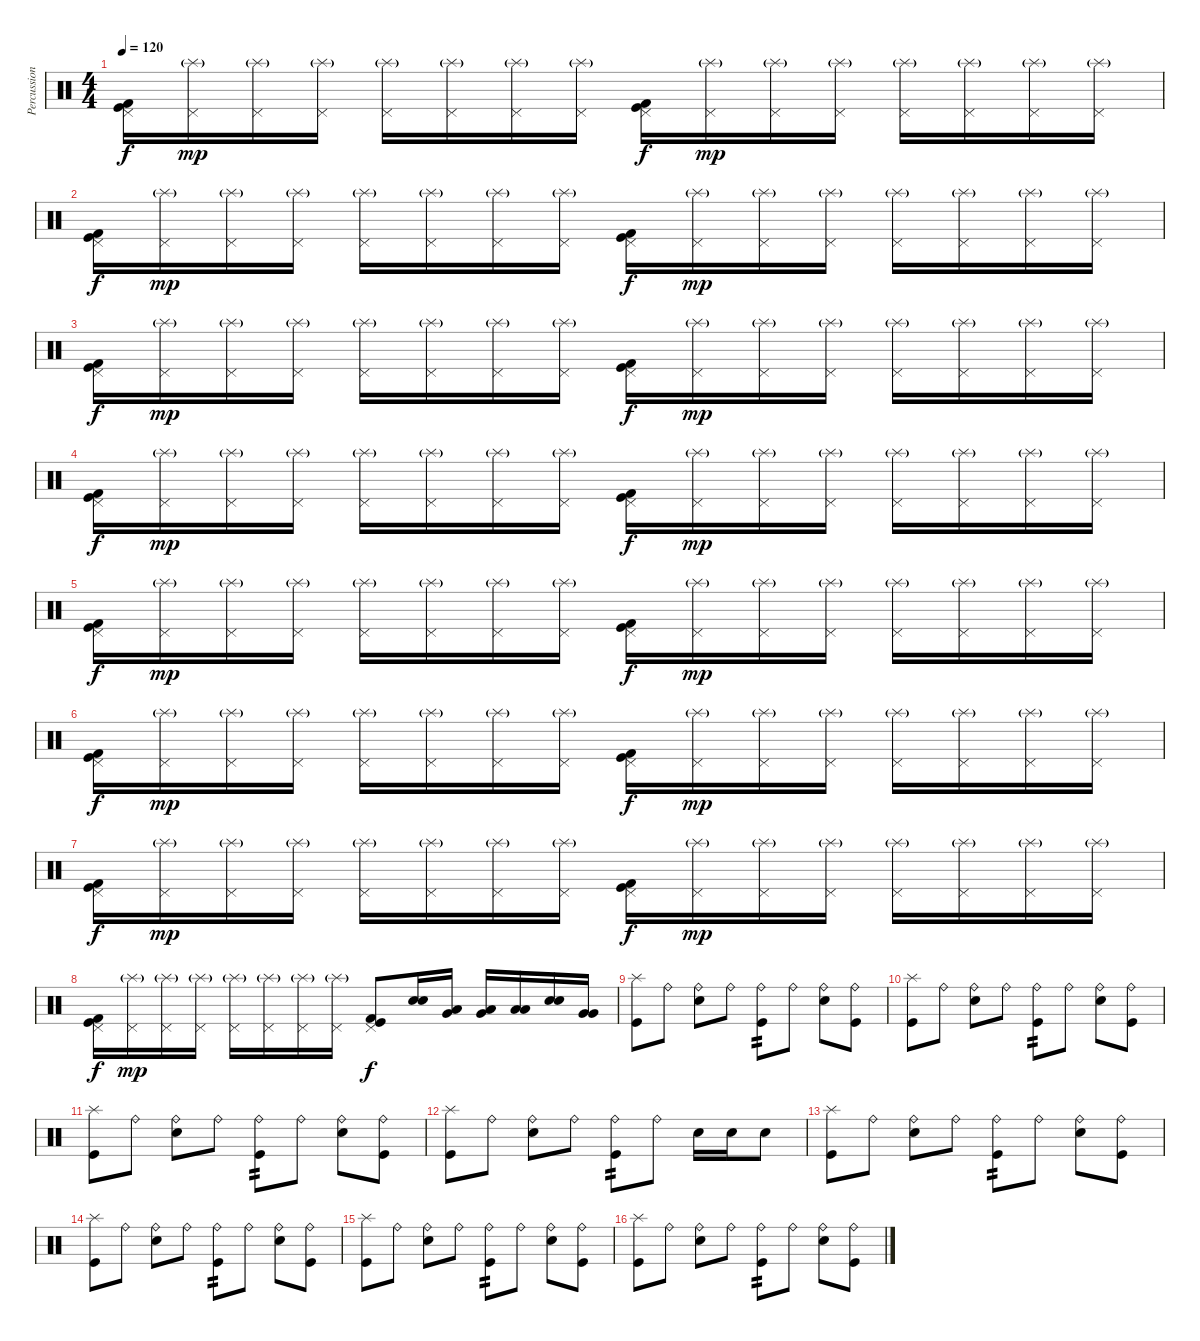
\track ("Percussion" "Percussion") {instrument percussion}
\staff {score}
\articulation defaults
\ts (4 4)
\tempo 120
\clef neutral
\ks c
("Kick (hit) 2" "Pedal Hi-Hat (hit)" "Kick (hit)").16{dy f} ("Pedal Hi-Hat (hit)" "Splash (hit)"{g}).16{dy mp} ("Pedal Hi-Hat (hit)" "Splash (hit)"{g}).16 ("Pedal Hi-Hat (hit)" "Splash (hit)"{g}).16 ("Pedal Hi-Hat (hit)" "Splash (hit)"{g}).16 ("Pedal Hi-Hat (hit)" "Splash (hit)"{g}).16 ("Pedal Hi-Hat (hit)" "Splash (hit)"{g}).16 ("Pedal Hi-Hat (hit)" "Splash (hit)"{g}).16 ("Kick (hit) 2" "Pedal Hi-Hat (hit)" "Kick (hit)").16{dy f} ("Pedal Hi-Hat (hit)" "Splash (hit)"{g}).16{dy mp} ("Pedal Hi-Hat (hit)" "Splash (hit)"{g}).16 ("Pedal Hi-Hat (hit)" "Splash (hit)"{g}).16 ("Pedal Hi-Hat (hit)" "Splash (hit)"{g}).16 ("Pedal Hi-Hat (hit)" "Splash (hit)"{g}).16 ("Pedal Hi-Hat (hit)" "Splash (hit)"{g}).16 ("Pedal Hi-Hat (hit)" "Splash (hit)"{g}).16 |
("Kick (hit) 2" "Pedal Hi-Hat (hit)" "Kick (hit)").16{dy f} ("Pedal Hi-Hat (hit)" "Splash (hit)"{g}).16{dy mp} ("Pedal Hi-Hat (hit)" "Splash (hit)"{g}).16 ("Pedal Hi-Hat (hit)" "Splash (hit)"{g}).16 ("Pedal Hi-Hat (hit)" "Splash (hit)"{g}).16 ("Pedal Hi-Hat (hit)" "Splash (hit)"{g}).16 ("Pedal Hi-Hat (hit)" "Splash (hit)"{g}).16 ("Pedal Hi-Hat (hit)" "Splash (hit)"{g}).16 ("Kick (hit) 2" "Pedal Hi-Hat (hit)" "Kick (hit)").16{dy f} ("Pedal Hi-Hat (hit)" "Splash (hit)"{g}).16{dy mp} ("Pedal Hi-Hat (hit)" "Splash (hit)"{g}).16 ("Pedal Hi-Hat (hit)" "Splash (hit)"{g}).16 ("Pedal Hi-Hat (hit)" "Splash (hit)"{g}).16 ("Pedal Hi-Hat (hit)" "Splash (hit)"{g}).16 ("Pedal Hi-Hat (hit)" "Splash (hit)"{g}).16 ("Pedal Hi-Hat (hit)" "Splash (hit)"{g}).16 |
("Kick (hit) 2" "Pedal Hi-Hat (hit)" "Kick (hit)").16{dy f} ("Pedal Hi-Hat (hit)" "Splash (hit)"{g}).16{dy mp} ("Pedal Hi-Hat (hit)" "Splash (hit)"{g}).16 ("Pedal Hi-Hat (hit)" "Splash (hit)"{g}).16 ("Pedal Hi-Hat (hit)" "Splash (hit)"{g}).16 ("Pedal Hi-Hat (hit)" "Splash (hit)"{g}).16 ("Pedal Hi-Hat (hit)" "Splash (hit)"{g}).16 ("Pedal Hi-Hat (hit)" "Splash (hit)"{g}).16 ("Kick (hit) 2" "Pedal Hi-Hat (hit)" "Kick (hit)").16{dy f} ("Pedal Hi-Hat (hit)" "Splash (hit)"{g}).16{dy mp} ("Pedal Hi-Hat (hit)" "Splash (hit)"{g}).16 ("Pedal Hi-Hat (hit)" "Splash (hit)"{g}).16 ("Pedal Hi-Hat (hit)" "Splash (hit)"{g}).16 ("Pedal Hi-Hat (hit)" "Splash (hit)"{g}).16 ("Pedal Hi-Hat (hit)" "Splash (hit)"{g}).16 ("Pedal Hi-Hat (hit)" "Splash (hit)"{g}).16 |
("Kick (hit) 2" "Pedal Hi-Hat (hit)" "Kick (hit)").16{dy f} ("Pedal Hi-Hat (hit)" "Splash (hit)"{g}).16{dy mp} ("Pedal Hi-Hat (hit)" "Splash (hit)"{g}).16 ("Pedal Hi-Hat (hit)" "Splash (hit)"{g}).16 ("Pedal Hi-Hat (hit)" "Splash (hit)"{g}).16 ("Pedal Hi-Hat (hit)" "Splash (hit)"{g}).16 ("Pedal Hi-Hat (hit)" "Splash (hit)"{g}).16 ("Pedal Hi-Hat (hit)" "Splash (hit)"{g}).16 ("Kick (hit) 2" "Pedal Hi-Hat (hit)" "Kick (hit)").16{dy f} ("Pedal Hi-Hat (hit)" "Splash (hit)"{g}).16{dy mp} ("Pedal Hi-Hat (hit)" "Splash (hit)"{g}).16 ("Pedal Hi-Hat (hit)" "Splash (hit)"{g}).16 ("Pedal Hi-Hat (hit)" "Splash (hit)"{g}).16 ("Pedal Hi-Hat (hit)" "Splash (hit)"{g}).16 ("Pedal Hi-Hat (hit)" "Splash (hit)"{g}).16 ("Pedal Hi-Hat (hit)" "Splash (hit)"{g}).16 |
("Kick (hit) 2" "Pedal Hi-Hat (hit)" "Kick (hit)").16{dy f} ("Pedal Hi-Hat (hit)" "Splash (hit)"{g}).16{dy mp} ("Pedal Hi-Hat (hit)" "Splash (hit)"{g}).16 ("Pedal Hi-Hat (hit)" "Splash (hit)"{g}).16 ("Pedal Hi-Hat (hit)" "Splash (hit)"{g}).16 ("Pedal Hi-Hat (hit)" "Splash (hit)"{g}).16 ("Pedal Hi-Hat (hit)" "Splash (hit)"{g}).16 ("Pedal Hi-Hat (hit)" "Splash (hit)"{g}).16 ("Kick (hit) 2" "Pedal Hi-Hat (hit)" "Kick (hit)").16{dy f} ("Pedal Hi-Hat (hit)" "Splash (hit)"{g}).16{dy mp} ("Pedal Hi-Hat (hit)" "Splash (hit)"{g}).16 ("Pedal Hi-Hat (hit)" "Splash (hit)"{g}).16 ("Pedal Hi-Hat (hit)" "Splash (hit)"{g}).16 ("Pedal Hi-Hat (hit)" "Splash (hit)"{g}).16 ("Pedal Hi-Hat (hit)" "Splash (hit)"{g}).16 ("Pedal Hi-Hat (hit)" "Splash (hit)"{g}).16 |
("Kick (hit) 2" "Pedal Hi-Hat (hit)" "Kick (hit)").16{dy f} ("Pedal Hi-Hat (hit)" "Splash (hit)"{g}).16{dy mp} ("Pedal Hi-Hat (hit)" "Splash (hit)"{g}).16 ("Pedal Hi-Hat (hit)" "Splash (hit)"{g}).16 ("Pedal Hi-Hat (hit)" "Splash (hit)"{g}).16 ("Pedal Hi-Hat (hit)" "Splash (hit)"{g}).16 ("Pedal Hi-Hat (hit)" "Splash (hit)"{g}).16 ("Pedal Hi-Hat (hit)" "Splash (hit)"{g}).16 ("Kick (hit) 2" "Pedal Hi-Hat (hit)" "Kick (hit)").16{dy f} ("Pedal Hi-Hat (hit)" "Splash (hit)"{g}).16{dy mp} ("Pedal Hi-Hat (hit)" "Splash (hit)"{g}).16 ("Pedal Hi-Hat (hit)" "Splash (hit)"{g}).16 ("Pedal Hi-Hat (hit)" "Splash (hit)"{g}).16 ("Pedal Hi-Hat (hit)" "Splash (hit)"{g}).16 ("Pedal Hi-Hat (hit)" "Splash (hit)"{g}).16 ("Pedal Hi-Hat (hit)" "Splash (hit)"{g}).16 |
("Kick (hit) 2" "Pedal Hi-Hat (hit)" "Kick (hit)").16{dy f} ("Pedal Hi-Hat (hit)" "Splash (hit)"{g}).16{dy mp} ("Pedal Hi-Hat (hit)" "Splash (hit)"{g}).16 ("Pedal Hi-Hat (hit)" "Splash (hit)"{g}).16 ("Pedal Hi-Hat (hit)" "Splash (hit)"{g}).16 ("Pedal Hi-Hat (hit)" "Splash (hit)"{g}).16 ("Pedal Hi-Hat (hit)" "Splash (hit)"{g}).16 ("Pedal Hi-Hat (hit)" "Splash (hit)"{g}).16 ("Kick (hit) 2" "Pedal Hi-Hat (hit)" "Kick (hit)").16{dy f} ("Pedal Hi-Hat (hit)" "Splash (hit)"{g}).16{dy mp} ("Pedal Hi-Hat (hit)" "Splash (hit)"{g}).16 ("Pedal Hi-Hat (hit)" "Splash (hit)"{g}).16 ("Pedal Hi-Hat (hit)" "Splash (hit)"{g}).16 ("Pedal Hi-Hat (hit)" "Splash (hit)"{g}).16 ("Pedal Hi-Hat (hit)" "Splash (hit)"{g}).16 ("Pedal Hi-Hat (hit)" "Splash (hit)"{g}).16 |
("Kick (hit) 2" "Pedal Hi-Hat (hit)" "Kick (hit)").16{dy f} ("Pedal Hi-Hat (hit)" "Splash (hit)"{g}).16{dy mp} ("Pedal Hi-Hat (hit)" "Splash (hit)"{g}).16 ("Pedal Hi-Hat (hit)" "Splash (hit)"{g}).16 ("Pedal Hi-Hat (hit)" "Splash (hit)"{g}).16 ("Pedal Hi-Hat (hit)" "Splash (hit)"{g}).16 ("Pedal Hi-Hat (hit)" "Splash (hit)"{g}).16 ("Pedal Hi-Hat (hit)" "Splash (hit)"{g}).16 ("Kick (hit) 2" "Pedal Hi-Hat (hit)" "Kick (hit)").8{dy f} ("Electric Snare (hit)" "Electric Snare (hit)").16 ("Low Floor Tom (hit)" "Very Low Tom (hit)").16 ("Low Floor Tom (hit)" "Very Low Tom (hit)").16 ("Low Floor Tom (hit)" "Low Floor Tom (hit)").16 ("Electric Snare (hit)" "Electric Snare (hit)").16 ("Very Low Tom (hit)" "Very Low Tom (hit)").16 |
("Kick (hit)" "Splash (hit)").8 "Ride (bell)".8 ("Electric Snare (hit)" "Ride (bell)").8 "Ride (bell)".8 ("Kick (hit)" "Ride (bell)").8{tp 2} "Ride (bell)".8 ("Electric Snare (hit)" "Ride (bell)").8 ("Kick (hit)" "Ride (bell)").8 |
("Kick (hit)" "Splash (hit)").8 "Ride (bell)".8 ("Electric Snare (hit)" "Ride (bell)").8 "Ride (bell)".8 ("Kick (hit)" "Ride (bell)").8{tp 2} "Ride (bell)".8 ("Electric Snare (hit)" "Ride (bell)").8 ("Kick (hit)" "Ride (bell)").8 |
("Kick (hit)" "Splash (hit)").8 "Ride (bell)".8 ("Electric Snare (hit)" "Ride (bell)").8 "Ride (bell)".8 ("Kick (hit)" "Ride (bell)").8{tp 2} "Ride (bell)".8 ("Electric Snare (hit)" "Ride (bell)").8 ("Kick (hit)" "Ride (bell)").8 |
("Kick (hit)" "Splash (hit)").8 "Ride (bell)".8 ("Electric Snare (hit)" "Ride (bell)").8 "Ride (bell)".8 ("Kick (hit)" "Ride (bell)").8{tp 2} "Ride (bell)".8 "Electric Snare (hit)".16 "Electric Snare (hit)".16 "Electric Snare (hit)".8 |
("Kick (hit)" "Splash (hit)").8 "Ride (bell)".8 ("Electric Snare (hit)" "Ride (bell)").8 "Ride (bell)".8 ("Kick (hit)" "Ride (bell)").8{tp 2} "Ride (bell)".8 ("Electric Snare (hit)" "Ride (bell)").8 ("Kick (hit)" "Ride (bell)").8 |
("Kick (hit)" "Splash (hit)").8 "Ride (bell)".8 ("Electric Snare (hit)" "Ride (bell)").8 "Ride (bell)".8 ("Kick (hit)" "Ride (bell)").8{tp 2} "Ride (bell)".8 ("Electric Snare (hit)" "Ride (bell)").8 ("Kick (hit)" "Ride (bell)").8 |
("Kick (hit)" "Splash (hit)").8 "Ride (bell)".8 ("Electric Snare (hit)" "Ride (bell)").8 "Ride (bell)".8 ("Kick (hit)" "Ride (bell)").8{tp 2} "Ride (bell)".8 ("Electric Snare (hit)" "Ride (bell)").8 ("Kick (hit)" "Ride (bell)").8 |
("Kick (hit)" "Splash (hit)").8 "Ride (bell)".8 ("Electric Snare (hit)" "Ride (bell)").8 "Ride (bell)".8 ("Kick (hit)" "Ride (bell)").8{tp 2} "Ride (bell)".8 ("Electric Snare (hit)" "Ride (bell)").8 ("Kick (hit)" "Ride (bell)").8
